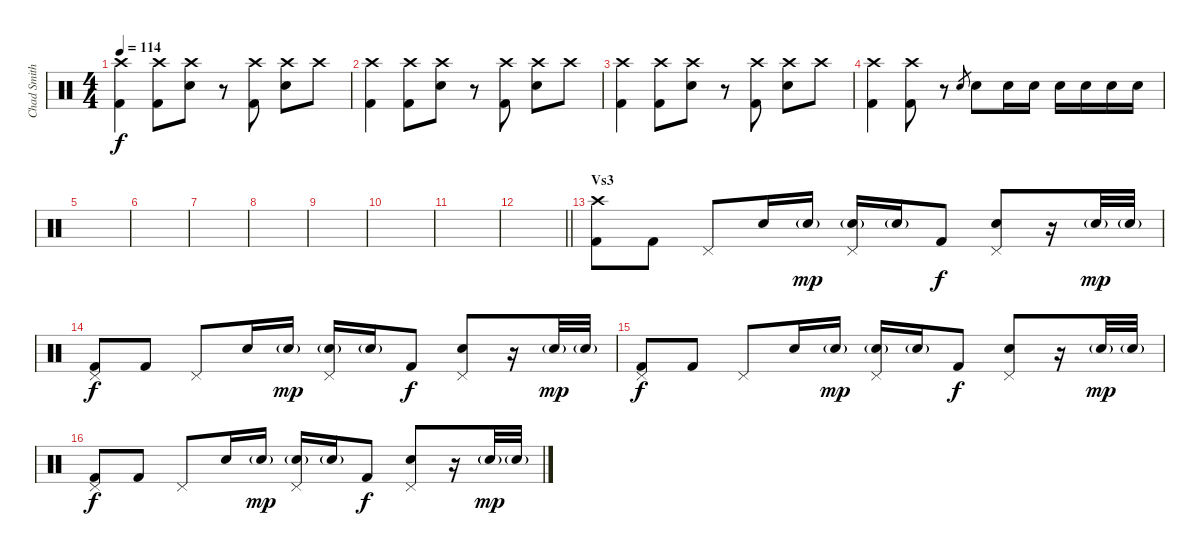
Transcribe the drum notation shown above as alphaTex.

\track ("Chad Smith" "Chad Smith") {instrument percussion}
\staff {score}
\articulation defaults
\ts (4 4)
\tempo 114
\clef neutral
\ks c
("Crash high (hit)" "Kick (hit) 2").4{dy f} ("Crash high (hit)" "Kick (hit) 2").8 ("Crash high (hit)" "Snare (hit) 2").8 r.8 ("Crash high (hit)" "Kick (hit) 2").8 ("Crash high (hit)" "Snare (hit) 2").8 "Crash high (hit)".8 |
("Crash high (hit)" "Kick (hit) 2").4 ("Crash high (hit)" "Kick (hit) 2").8 ("Crash high (hit)" "Snare (hit) 2").8 r.8 ("Crash high (hit)" "Kick (hit) 2").8 ("Crash high (hit)" "Snare (hit) 2").8 "Crash high (hit)".8 |
("Crash high (hit)" "Kick (hit) 2").4 ("Crash high (hit)" "Kick (hit) 2").8 ("Crash high (hit)" "Snare (hit) 2").8 r.8 ("Crash high (hit)" "Kick (hit) 2").8 ("Crash high (hit)" "Snare (hit) 2").8 "Crash high (hit)".8 |
("Crash high (hit)" "Kick (hit) 2").4 ("Crash high (hit)" "Kick (hit) 2").8 r.8 "Snare (hit) 2".8{gr} "Snare (hit) 2".8 "Snare (hit) 2".16 "Snare (hit) 2".16 "Snare (hit) 2".16 "Snare (hit) 2".16 "Snare (hit) 2".16 "Snare (hit) 2".16 |
|
|
|
|
|
|
|
\barLineRight lightlight
|
\section ("" "Vs3")
("Crash high (hit)" "Kick (hit) 2").8 "Kick (hit) 2".8 "Pedal Hi-Hat (hit)".8 "Snare (hit) 2".16 "Snare (hit) 2"{g}.16{dy mp} ("Pedal Hi-Hat (hit)" "Snare (hit) 2"{g}).16 "Snare (hit) 2"{g}.16 "Kick (hit) 2".8{dy f} ("Pedal Hi-Hat (hit)" "Snare (hit) 2").8 r.16 "Snare (hit) 2"{g}.32{dy mp} "Snare (hit) 2"{g}.32 |
("Pedal Hi-Hat (hit)" "Kick (hit) 2").8{dy f} "Kick (hit) 2".8 "Pedal Hi-Hat (hit)".8 "Snare (hit) 2".16 "Snare (hit) 2"{g}.16{dy mp} ("Pedal Hi-Hat (hit)" "Snare (hit) 2"{g}).16 "Snare (hit) 2"{g}.16 "Kick (hit) 2".8{dy f} ("Pedal Hi-Hat (hit)" "Snare (hit) 2").8 r.16 "Snare (hit) 2"{g}.32{dy mp} "Snare (hit) 2"{g}.32 |
("Pedal Hi-Hat (hit)" "Kick (hit) 2").8{dy f} "Kick (hit) 2".8 "Pedal Hi-Hat (hit)".8 "Snare (hit) 2".16 "Snare (hit) 2"{g}.16{dy mp} ("Pedal Hi-Hat (hit)" "Snare (hit) 2"{g}).16 "Snare (hit) 2"{g}.16 "Kick (hit) 2".8{dy f} ("Pedal Hi-Hat (hit)" "Snare (hit) 2").8 r.16 "Snare (hit) 2"{g}.32{dy mp} "Snare (hit) 2"{g}.32 |
("Pedal Hi-Hat (hit)" "Kick (hit) 2").8{dy f} "Kick (hit) 2".8 "Pedal Hi-Hat (hit)".8 "Snare (hit) 2".16 "Snare (hit) 2"{g}.16{dy mp} ("Pedal Hi-Hat (hit)" "Snare (hit) 2"{g}).16 "Snare (hit) 2"{g}.16 "Kick (hit) 2".8{dy f} ("Pedal Hi-Hat (hit)" "Snare (hit) 2").8 r.16 "Snare (hit) 2"{g}.32{dy mp} "Snare (hit) 2"{g}.32
